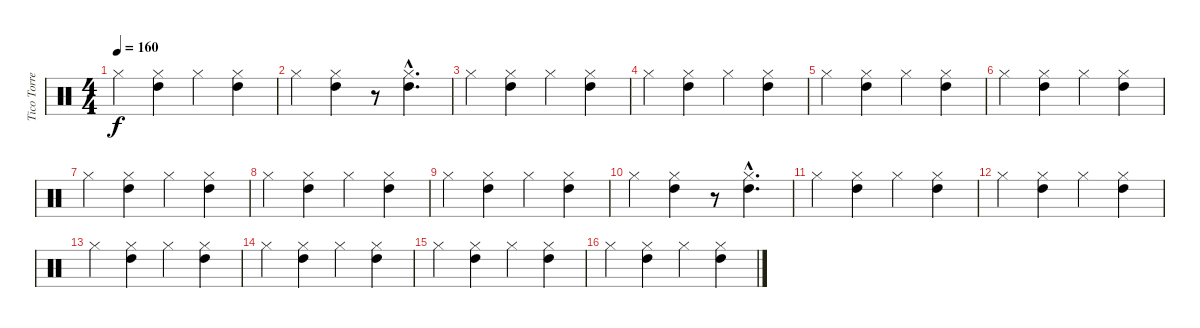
\track ("Tico Torres" "Tico Torre") {instrument percussion}
\staff {score}
\articulation defaults
\ts (4 4)
\tempo 160
\clef neutral
\ks c "Hi-Hat (closed)".4{dy f}
("Hi-Hat (closed)" "High Tom (hit)").4 "Hi-Hat (closed)".4 ("Hi-Hat (closed)" "High Tom (hit)").4 |
"Hi-Hat (closed)".4 ("Hi-Hat (closed)" "High Tom (hit)").4 r.8 ("Hi-Hat (closed)"{hac} "High Tom (hit)"{hac}).4{d} |
"Hi-Hat (closed)".4 ("Hi-Hat (closed)" "High Tom (hit)").4 "Hi-Hat (closed)".4 ("Hi-Hat (closed)" "High Tom (hit)").4 |
"Hi-Hat (closed)".4 ("Hi-Hat (closed)" "High Tom (hit)").4 "Hi-Hat (closed)".4 ("Hi-Hat (closed)" "High Tom (hit)").4 |
"Hi-Hat (closed)".4 ("Hi-Hat (closed)" "High Tom (hit)").4 "Hi-Hat (closed)".4 ("Hi-Hat (closed)" "High Tom (hit)").4 |
"Hi-Hat (closed)".4 ("Hi-Hat (closed)" "High Tom (hit)").4 "Hi-Hat (closed)".4 ("Hi-Hat (closed)" "High Tom (hit)").4 |
"Hi-Hat (closed)".4 ("Hi-Hat (closed)" "High Tom (hit)").4 "Hi-Hat (closed)".4 ("Hi-Hat (closed)" "High Tom (hit)").4 |
"Hi-Hat (closed)".4 ("Hi-Hat (closed)" "High Tom (hit)").4 "Hi-Hat (closed)".4 ("Hi-Hat (closed)" "High Tom (hit)").4 |
"Hi-Hat (closed)".4 ("Hi-Hat (closed)" "High Tom (hit)").4 "Hi-Hat (closed)".4 ("Hi-Hat (closed)" "High Tom (hit)").4 |
"Hi-Hat (closed)".4 ("Hi-Hat (closed)" "High Tom (hit)").4 r.8 ("Hi-Hat (closed)"{hac} "High Tom (hit)"{hac}).4{d} |
"Hi-Hat (closed)".4 ("Hi-Hat (closed)" "High Tom (hit)").4 "Hi-Hat (closed)".4 ("Hi-Hat (closed)" "High Tom (hit)").4 |
"Hi-Hat (closed)".4 ("Hi-Hat (closed)" "High Tom (hit)").4 "Hi-Hat (closed)".4 ("Hi-Hat (closed)" "High Tom (hit)").4 |
"Hi-Hat (closed)".4 ("Hi-Hat (closed)" "High Tom (hit)").4 "Hi-Hat (closed)".4 ("Hi-Hat (closed)" "High Tom (hit)").4 |
"Hi-Hat (closed)".4 ("Hi-Hat (closed)" "High Tom (hit)").4 "Hi-Hat (closed)".4 ("Hi-Hat (closed)" "High Tom (hit)").4 |
"Hi-Hat (closed)".4 ("Hi-Hat (closed)" "High Tom (hit)").4 "Hi-Hat (closed)".4 ("Hi-Hat (closed)" "High Tom (hit)").4 |
"Hi-Hat (closed)".4 ("Hi-Hat (closed)" "High Tom (hit)").4 "Hi-Hat (closed)".4 ("Hi-Hat (closed)" "High Tom (hit)").4
